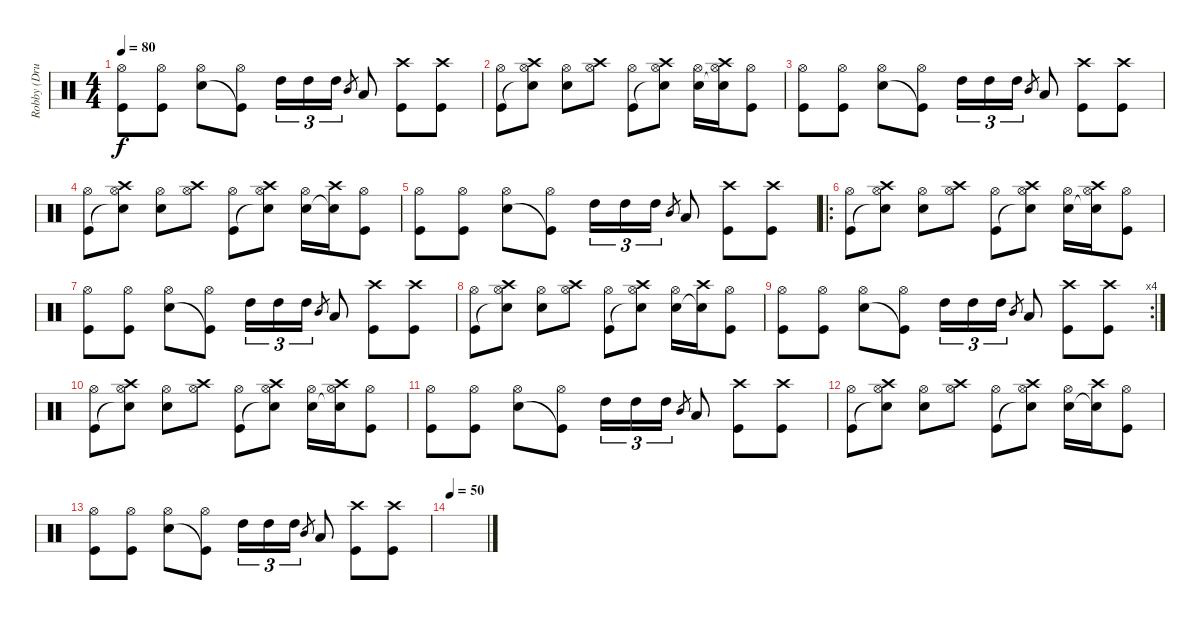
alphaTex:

\track ("Robby (Drums)" "Robby (Dru") {instrument percussion}
\staff {score}
\articulation defaults
\ts (4 4)
\tempo 80
\clef neutral
\ks c
("Kick (hit)" "Hi-Hat (open)").8{dy f} ("Kick (hit)" "Hi-Hat (open)").8 ("Snare (hit) 2" "Hi-Hat (open)").8 ("Kick (hit)"{t} "Hi-Hat (open)").8 "High Tom (hit)".16{tu (3 2)} "High Tom (hit)".16{tu (3 2)} "High Tom (hit)".16{tu (3 2)} "Mid Tom (hit)".8{gr} "Low Tom (hit)".8 ("Crash high (hit)" "Kick (hit)").8 ("Crash high (hit)" "Kick (hit)").8 |
("Kick (hit)" "Hi-Hat (open)").8 ("Snare (hit)"{t} "Hi-Hat (open)" "Crash high (hit)").8 ("Snare (hit) 2" "Hi-Hat (open)").8 ("Hi-Hat (open)" "Crash high (hit)").8 ("Kick (hit)" "Hi-Hat (open)").8 ("Snare (hit)"{t} "Hi-Hat (open)" "Crash high (hit)").8 ("Snare (hit) 2" "Hi-Hat (open)").16 ("Snare (hit)"{t} "Hi-Hat (open)" "Crash high (hit)").16 ("Kick (hit)" "Hi-Hat (open)").8 |
("Kick (hit)" "Hi-Hat (open)").8 ("Kick (hit)" "Hi-Hat (open)").8 ("Snare (hit) 2" "Hi-Hat (open)").8 ("Kick (hit)"{t} "Hi-Hat (open)").8 "High Tom (hit)".16{tu (3 2)} "High Tom (hit)".16{tu (3 2)} "High Tom (hit)".16{tu (3 2)} "Mid Tom (hit)".8{gr} "Low Tom (hit)".8 ("Crash high (hit)" "Kick (hit)").8 ("Crash high (hit)" "Kick (hit)").8 |
("Kick (hit)" "Hi-Hat (open)").8 ("Snare (hit)"{t} "Hi-Hat (open)" "Crash high (hit)").8 ("Snare (hit) 2" "Hi-Hat (open)").8 ("Hi-Hat (open)" "Crash high (hit)").8 ("Kick (hit)" "Hi-Hat (open)").8 ("Snare (hit)"{t} "Hi-Hat (open)" "Crash high (hit)").8 ("Snare (hit) 2" "Hi-Hat (open)").16 ("Snare (hit)"{t} "Crash high (hit)").16 ("Kick (hit)" "Hi-Hat (open)").8 |
("Kick (hit)" "Hi-Hat (open)").8 ("Kick (hit)" "Hi-Hat (open)").8 ("Snare (hit) 2" "Hi-Hat (open)").8 ("Kick (hit)"{t} "Hi-Hat (open)").8 "High Tom (hit)".16{tu (3 2)} "High Tom (hit)".16{tu (3 2)} "High Tom (hit)".16{tu (3 2)} "Mid Tom (hit)".8{gr} "Low Tom (hit)".8 ("Crash high (hit)" "Kick (hit)").8 ("Crash high (hit)" "Kick (hit)").8 |
\ro
("Kick (hit)" "Hi-Hat (open)").8 ("Snare (hit)"{t} "Hi-Hat (open)" "Crash high (hit)").8 ("Snare (hit) 2" "Hi-Hat (open)").8 ("Hi-Hat (open)" "Crash high (hit)").8 ("Kick (hit)" "Hi-Hat (open)").8 ("Snare (hit)"{t} "Hi-Hat (open)" "Crash high (hit)").8 ("Snare (hit) 2" "Hi-Hat (open)").16 ("Snare (hit)"{t} "Hi-Hat (open)" "Crash high (hit)").16 ("Kick (hit)" "Hi-Hat (open)").8 |
("Kick (hit)" "Hi-Hat (open)").8 ("Kick (hit)" "Hi-Hat (open)").8 ("Snare (hit) 2" "Hi-Hat (open)").8 ("Kick (hit)"{t} "Hi-Hat (open)").8 "High Tom (hit)".16{tu (3 2)} "High Tom (hit)".16{tu (3 2)} "High Tom (hit)".16{tu (3 2)} "Mid Tom (hit)".8{gr} "Low Tom (hit)".8 ("Crash high (hit)" "Kick (hit)").8 ("Crash high (hit)" "Kick (hit)").8 |
("Kick (hit)" "Hi-Hat (open)").8 ("Snare (hit)"{t} "Hi-Hat (open)" "Crash high (hit)").8 ("Snare (hit) 2" "Hi-Hat (open)").8 ("Hi-Hat (open)" "Crash high (hit)").8 ("Kick (hit)" "Hi-Hat (open)").8 ("Snare (hit)"{t} "Hi-Hat (open)" "Crash high (hit)").8 ("Snare (hit) 2" "Hi-Hat (open)").16 ("Snare (hit)"{t} "Crash high (hit)").16 ("Kick (hit)" "Hi-Hat (open)").8 |
\rc 4
("Kick (hit)" "Hi-Hat (open)").8 ("Kick (hit)" "Hi-Hat (open)").8 ("Snare (hit) 2" "Hi-Hat (open)").8 ("Kick (hit)"{t} "Hi-Hat (open)").8 "High Tom (hit)".16{tu (3 2)} "High Tom (hit)".16{tu (3 2)} "High Tom (hit)".16{tu (3 2)} "Mid Tom (hit)".8{gr} "Low Tom (hit)".8 ("Crash high (hit)" "Kick (hit)").8 ("Crash high (hit)" "Kick (hit)").8 |
("Kick (hit)" "Hi-Hat (open)").8 ("Snare (hit)"{t} "Hi-Hat (open)" "Crash high (hit)").8 ("Snare (hit) 2" "Hi-Hat (open)").8 ("Hi-Hat (open)" "Crash high (hit)").8 ("Kick (hit)" "Hi-Hat (open)").8 ("Snare (hit)"{t} "Hi-Hat (open)" "Crash high (hit)").8 ("Snare (hit) 2" "Hi-Hat (open)").16 ("Snare (hit)"{t} "Hi-Hat (open)" "Crash high (hit)").16 ("Kick (hit)" "Hi-Hat (open)").8 |
("Kick (hit)" "Hi-Hat (open)").8 ("Kick (hit)" "Hi-Hat (open)").8 ("Snare (hit) 2" "Hi-Hat (open)").8 ("Kick (hit)"{t} "Hi-Hat (open)").8 "High Tom (hit)".16{tu (3 2)} "High Tom (hit)".16{tu (3 2)} "High Tom (hit)".16{tu (3 2)} "Mid Tom (hit)".8{gr} "Low Tom (hit)".8 ("Crash high (hit)" "Kick (hit)").8 ("Crash high (hit)" "Kick (hit)").8 |
("Kick (hit)" "Hi-Hat (open)").8 ("Snare (hit)"{t} "Hi-Hat (open)" "Crash high (hit)").8 ("Snare (hit) 2" "Hi-Hat (open)").8 ("Hi-Hat (open)" "Crash high (hit)").8 ("Kick (hit)" "Hi-Hat (open)").8 ("Snare (hit)"{t} "Hi-Hat (open)" "Crash high (hit)").8 ("Snare (hit) 2" "Hi-Hat (open)").16 ("Snare (hit)"{t} "Crash high (hit)").16 ("Kick (hit)" "Hi-Hat (open)").8 |
("Kick (hit)" "Hi-Hat (open)").8 ("Kick (hit)" "Hi-Hat (open)").8 ("Snare (hit) 2" "Hi-Hat (open)").8 ("Kick (hit)"{t} "Hi-Hat (open)").8 "High Tom (hit)".16{tu (3 2)} "High Tom (hit)".16{tu (3 2)} "High Tom (hit)".16{tu (3 2)} "Mid Tom (hit)".8{gr} "Low Tom (hit)".8 ("Crash high (hit)" "Kick (hit)").8 ("Crash high (hit)" "Kick (hit)").8 |
\tempo 50
